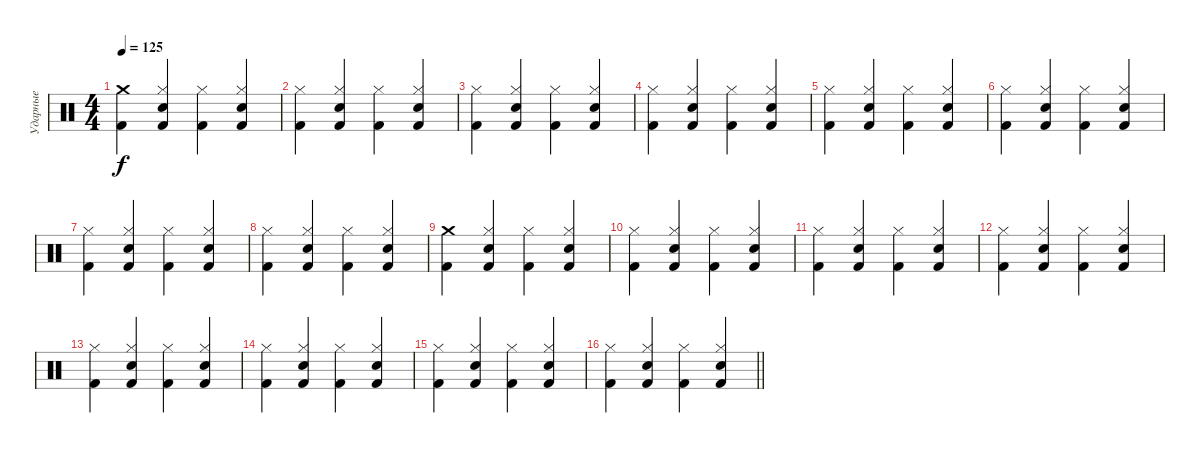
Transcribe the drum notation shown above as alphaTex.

\track ("Ударные" "Ударные") {instrument percussion}
\staff {score}
\articulation defaults
\ts (4 4)
\tempo 125
\clef neutral
\ks c
("Crash medium (hit)" "Kick (hit) 2").4{dy f} ("Hi-Hat (closed)" "Electric Snare (hit)" "Kick (hit) 2").4 ("Hi-Hat (closed)" "Kick (hit) 2").4 ("Hi-Hat (closed)" "Electric Snare (hit)" "Kick (hit) 2").4 |
("Hi-Hat (closed)" "Kick (hit) 2").4 ("Hi-Hat (closed)" "Electric Snare (hit)" "Kick (hit) 2").4 ("Hi-Hat (closed)" "Kick (hit) 2").4 ("Hi-Hat (closed)" "Electric Snare (hit)" "Kick (hit) 2").4 |
("Hi-Hat (closed)" "Kick (hit) 2").4 ("Hi-Hat (closed)" "Electric Snare (hit)" "Kick (hit) 2").4 ("Hi-Hat (closed)" "Kick (hit) 2").4 ("Hi-Hat (closed)" "Electric Snare (hit)" "Kick (hit) 2").4 |
("Hi-Hat (closed)" "Kick (hit) 2").4 ("Hi-Hat (closed)" "Electric Snare (hit)" "Kick (hit) 2").4 ("Hi-Hat (closed)" "Kick (hit) 2").4 ("Hi-Hat (closed)" "Electric Snare (hit)" "Kick (hit) 2").4 |
("Hi-Hat (closed)" "Kick (hit) 2").4 ("Hi-Hat (closed)" "Electric Snare (hit)" "Kick (hit) 2").4 ("Hi-Hat (closed)" "Kick (hit) 2").4 ("Hi-Hat (closed)" "Electric Snare (hit)" "Kick (hit) 2").4 |
("Hi-Hat (closed)" "Kick (hit) 2").4 ("Hi-Hat (closed)" "Electric Snare (hit)" "Kick (hit) 2").4 ("Hi-Hat (closed)" "Kick (hit) 2").4 ("Hi-Hat (closed)" "Electric Snare (hit)" "Kick (hit) 2").4 |
("Hi-Hat (closed)" "Kick (hit) 2").4 ("Hi-Hat (closed)" "Electric Snare (hit)" "Kick (hit) 2").4 ("Hi-Hat (closed)" "Kick (hit) 2").4 ("Hi-Hat (closed)" "Electric Snare (hit)" "Kick (hit) 2").4 |
("Hi-Hat (closed)" "Kick (hit) 2").4 ("Hi-Hat (closed)" "Electric Snare (hit)" "Kick (hit) 2").4 ("Hi-Hat (closed)" "Kick (hit) 2").4 ("Hi-Hat (closed)" "Electric Snare (hit)" "Kick (hit) 2").4 |
("Crash medium (hit)" "Kick (hit) 2").4 ("Hi-Hat (closed)" "Electric Snare (hit)" "Kick (hit) 2").4 ("Hi-Hat (closed)" "Kick (hit) 2").4 ("Hi-Hat (closed)" "Electric Snare (hit)" "Kick (hit) 2").4 |
("Hi-Hat (closed)" "Kick (hit) 2").4 ("Hi-Hat (closed)" "Electric Snare (hit)" "Kick (hit) 2").4 ("Hi-Hat (closed)" "Kick (hit) 2").4 ("Hi-Hat (closed)" "Electric Snare (hit)" "Kick (hit) 2").4 |
("Hi-Hat (closed)" "Kick (hit) 2").4 ("Hi-Hat (closed)" "Electric Snare (hit)" "Kick (hit) 2").4 ("Hi-Hat (closed)" "Kick (hit) 2").4 ("Hi-Hat (closed)" "Electric Snare (hit)" "Kick (hit) 2").4 |
("Hi-Hat (closed)" "Kick (hit) 2").4 ("Hi-Hat (closed)" "Electric Snare (hit)" "Kick (hit) 2").4 ("Hi-Hat (closed)" "Kick (hit) 2").4 ("Hi-Hat (closed)" "Electric Snare (hit)" "Kick (hit) 2").4 |
("Hi-Hat (closed)" "Kick (hit) 2").4 ("Hi-Hat (closed)" "Electric Snare (hit)" "Kick (hit) 2").4 ("Hi-Hat (closed)" "Kick (hit) 2").4 ("Hi-Hat (closed)" "Electric Snare (hit)" "Kick (hit) 2").4 |
("Hi-Hat (closed)" "Kick (hit) 2").4 ("Hi-Hat (closed)" "Electric Snare (hit)" "Kick (hit) 2").4 ("Hi-Hat (closed)" "Kick (hit) 2").4 ("Hi-Hat (closed)" "Electric Snare (hit)" "Kick (hit) 2").4 |
("Hi-Hat (closed)" "Kick (hit) 2").4 ("Hi-Hat (closed)" "Electric Snare (hit)" "Kick (hit) 2").4 ("Hi-Hat (closed)" "Kick (hit) 2").4 ("Hi-Hat (closed)" "Electric Snare (hit)" "Kick (hit) 2").4 |
\barLineRight lightlight
("Hi-Hat (closed)" "Kick (hit) 2").4 ("Hi-Hat (closed)" "Electric Snare (hit)" "Kick (hit) 2").4 ("Hi-Hat (closed)" "Kick (hit) 2").4 ("Hi-Hat (closed)" "Electric Snare (hit)" "Kick (hit) 2").4
